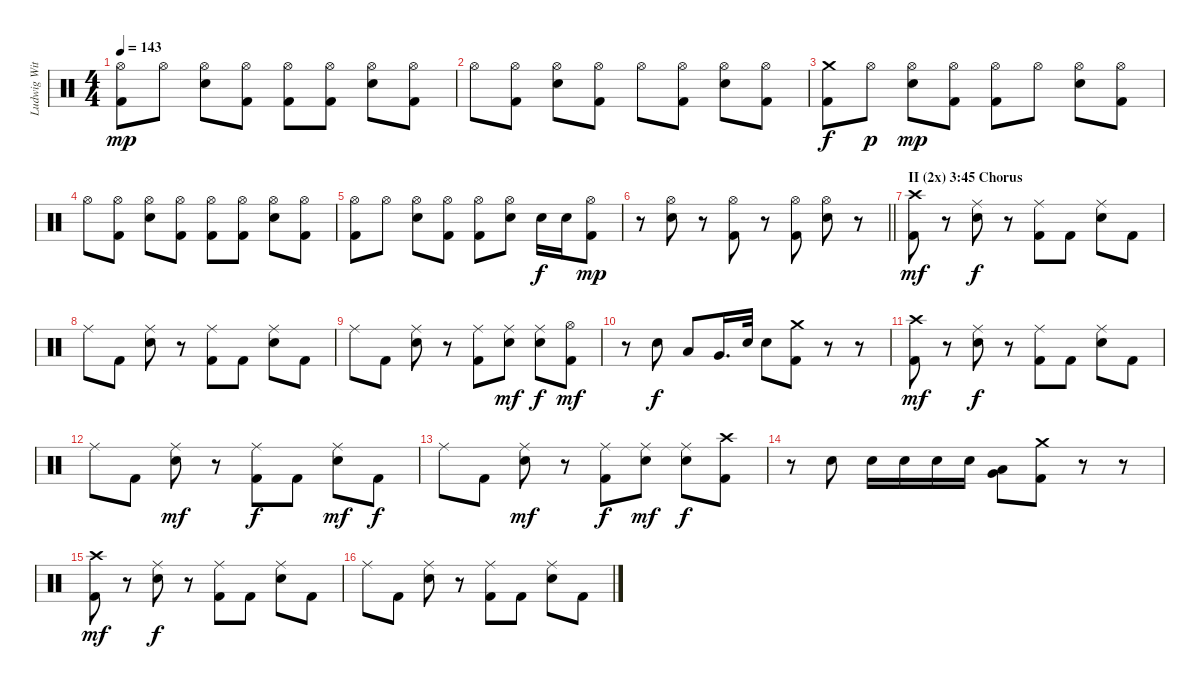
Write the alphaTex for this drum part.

\track ("Ludwig Witt (Drums)" "Ludwig Wit") {instrument percussion}
\staff {score}
\articulation defaults
\ts (4 4)
\tempo 143
\clef neutral
\ks c
("Hi-Hat (open)" "Kick (hit) 2").8{dy mp} "Hi-Hat (open)".8 ("Hi-Hat (open)" "Electric Snare (hit)").8 ("Hi-Hat (open)" "Kick (hit) 2").8 ("Hi-Hat (open)" "Kick (hit) 2").8 ("Hi-Hat (open)" "Kick (hit) 2").8 ("Hi-Hat (open)" "Electric Snare (hit)").8 ("Hi-Hat (open)" "Kick (hit) 2").8 |
"Hi-Hat (open)".8 ("Hi-Hat (open)" "Kick (hit) 2").8 ("Hi-Hat (open)" "Electric Snare (hit)").8 ("Hi-Hat (open)" "Kick (hit) 2").8 "Hi-Hat (open)".8 ("Hi-Hat (open)" "Kick (hit) 2").8 ("Hi-Hat (open)" "Electric Snare (hit)").8 ("Hi-Hat (open)" "Kick (hit) 2").8 |
("Crash medium (hit)" "Kick (hit) 2").8{dy f} "Hi-Hat (open)".8{dy p} ("Hi-Hat (open)" "Electric Snare (hit)").8{dy mp} ("Hi-Hat (open)" "Kick (hit) 2").8 ("Hi-Hat (open)" "Kick (hit) 2").8 "Hi-Hat (open)".8 ("Hi-Hat (open)" "Electric Snare (hit)").8 ("Hi-Hat (open)" "Kick (hit) 2").8 |
"Hi-Hat (open)".8 ("Hi-Hat (open)" "Kick (hit) 2").8 ("Hi-Hat (open)" "Electric Snare (hit)").8 ("Hi-Hat (open)" "Kick (hit) 2").8 ("Hi-Hat (open)" "Kick (hit) 2").8 ("Hi-Hat (open)" "Kick (hit) 2").8 ("Hi-Hat (open)" "Electric Snare (hit)").8 ("Hi-Hat (open)" "Kick (hit) 2").8 |
("Hi-Hat (open)" "Kick (hit) 2").8 "Hi-Hat (open)".8 ("Hi-Hat (open)" "Electric Snare (hit)").8 ("Hi-Hat (open)" "Kick (hit) 2").8 ("Hi-Hat (open)" "Kick (hit) 2").8 ("Hi-Hat (open)" "Electric Snare (hit)").8 "Electric Snare (hit)".16{dy f} "Electric Snare (hit)".16 ("Hi-Hat (open)" "Kick (hit) 2").8{dy mp} |
\barLineRight lightlight
r.8 ("Hi-Hat (open)" "Electric Snare (hit)").8 r.8 ("Hi-Hat (open)" "Kick (hit) 2").8 r.8 ("Hi-Hat (open)" "Kick (hit) 2").8 ("Hi-Hat (open)" "Electric Snare (hit)").8 r.8 |
\section ("" "II (2x) 3:45 Chorus")
("Crash high (hit)" "Kick (hit) 2").8{dy mf} r.8 ("Ride (middle)" "Electric Snare (hit)").8{dy f} r.8 ("Ride (middle)" "Kick (hit) 2").8 "Kick (hit) 2".8 ("Ride (middle)" "Electric Snare (hit)").8 "Kick (hit) 2".8 |
"Ride (middle)".8 "Kick (hit) 2".8 ("Ride (middle)" "Electric Snare (hit)").8 r.8 ("Ride (middle)" "Kick (hit) 2").8 "Kick (hit) 2".8 ("Ride (middle)" "Electric Snare (hit)").8 "Kick (hit) 2".8 |
"Ride (middle)".8 "Kick (hit) 2".8 ("Ride (middle)" "Electric Snare (hit)").8 r.8 ("Ride (middle)" "Kick (hit) 2").8 ("Ride (middle)" "Electric Snare (hit)").8{dy mf} ("Ride (middle)" "Electric Snare (hit)").8{dy f} ("Hi-Hat (open)" "Kick (hit) 2").8{dy mf} |
r.8 "Electric Snare (hit)".8{dy f} "Low Tom (hit)".8 "Very Low Tom (hit)".16{d} "Electric Snare (hit)".32 "Electric Snare (hit)".8 ("Crash medium (hit)" "Kick (hit) 2").8 r.8 r.8 |
("Crash high (hit)" "Kick (hit) 2").8{dy mf} r.8 ("Ride (middle)" "Electric Snare (hit)").8{dy f} r.8 ("Ride (middle)" "Kick (hit) 2").8 "Kick (hit) 2".8 ("Ride (middle)" "Electric Snare (hit)").8 "Kick (hit) 2".8 |
"Ride (middle)".8 "Kick (hit) 2".8 ("Ride (middle)" "Electric Snare (hit)").8{dy mf} r.8 ("Ride (middle)" "Kick (hit) 2").8{dy f} "Kick (hit) 2".8 ("Ride (middle)" "Electric Snare (hit)").8{dy mf} "Kick (hit) 2".8{dy f} |
"Ride (middle)".8 "Kick (hit) 2".8 ("Ride (middle)" "Electric Snare (hit)").8{dy mf} r.8 ("Ride (middle)" "Kick (hit) 2").8{dy f} ("Ride (middle)" "Electric Snare (hit)").8{dy mf} ("Ride (middle)" "Electric Snare (hit)").8{dy f} ("Crash high (hit)" "Kick (hit) 2").8 |
r.8 "Electric Snare (hit)".8 "Electric Snare (hit)".16 "Electric Snare (hit)".16 "Electric Snare (hit)".16 "Electric Snare (hit)".16 ("Very Low Tom (hit)" "Low Tom (hit)").8 ("Crash medium (hit)" "Kick (hit) 2").8 r.8 r.8 |
("Crash high (hit)" "Kick (hit) 2").8{dy mf} r.8 ("Ride (middle)" "Electric Snare (hit)").8{dy f} r.8 ("Ride (middle)" "Kick (hit) 2").8 "Kick (hit) 2".8 ("Ride (middle)" "Electric Snare (hit)").8 "Kick (hit) 2".8 |
"Ride (middle)".8 "Kick (hit) 2".8 ("Ride (middle)" "Electric Snare (hit)").8 r.8 ("Ride (middle)" "Kick (hit) 2").8 "Kick (hit) 2".8 ("Ride (middle)" "Electric Snare (hit)").8 "Kick (hit) 2".8
